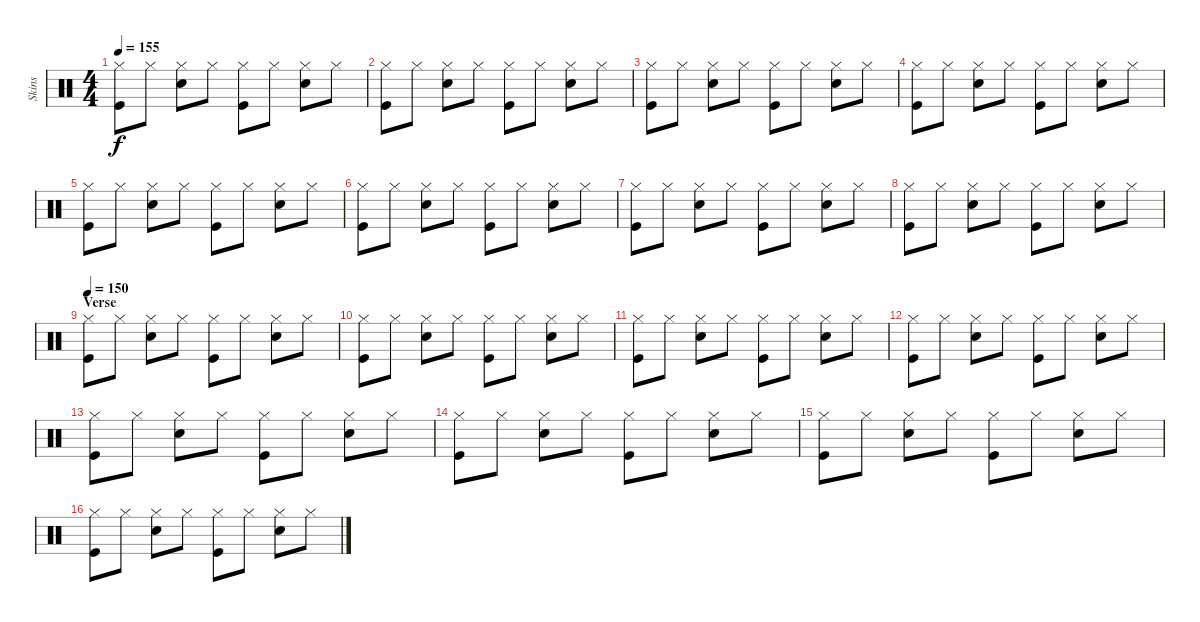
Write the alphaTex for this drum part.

\track ("Skins" "Skins") {instrument percussion}
\staff {score}
\articulation defaults
\ts (4 4)
\tempo 155
\clef neutral
\ks c
("Hi-Hat (closed)" "Kick (hit)").8{dy f} "Hi-Hat (closed)".8 ("Hi-Hat (closed)" "Snare (hit) 2").8 "Hi-Hat (closed)".8 ("Hi-Hat (closed)" "Kick (hit)").8 "Hi-Hat (closed)".8 ("Hi-Hat (closed)" "Snare (hit) 2").8 "Hi-Hat (closed)".8 |
("Hi-Hat (closed)" "Kick (hit)").8 "Hi-Hat (closed)".8 ("Hi-Hat (closed)" "Snare (hit) 2").8 "Hi-Hat (closed)".8 ("Hi-Hat (closed)" "Kick (hit)").8 "Hi-Hat (closed)".8 ("Hi-Hat (closed)" "Snare (hit) 2").8 "Hi-Hat (closed)".8 |
("Hi-Hat (closed)" "Kick (hit)").8 "Hi-Hat (closed)".8 ("Hi-Hat (closed)" "Snare (hit) 2").8 "Hi-Hat (closed)".8 ("Hi-Hat (closed)" "Kick (hit)").8 "Hi-Hat (closed)".8 ("Hi-Hat (closed)" "Snare (hit) 2").8 "Hi-Hat (closed)".8 |
("Hi-Hat (closed)" "Kick (hit)").8 "Hi-Hat (closed)".8 ("Hi-Hat (closed)" "Snare (hit) 2").8 "Hi-Hat (closed)".8 ("Hi-Hat (closed)" "Kick (hit)").8 "Hi-Hat (closed)".8 ("Hi-Hat (closed)" "Snare (hit) 2").8 "Hi-Hat (closed)".8 |
("Hi-Hat (closed)" "Kick (hit)").8 "Hi-Hat (closed)".8 ("Hi-Hat (closed)" "Snare (hit) 2").8 "Hi-Hat (closed)".8 ("Hi-Hat (closed)" "Kick (hit)").8 "Hi-Hat (closed)".8 ("Hi-Hat (closed)" "Snare (hit) 2").8 "Hi-Hat (closed)".8 |
("Hi-Hat (closed)" "Kick (hit)").8 "Hi-Hat (closed)".8 ("Hi-Hat (closed)" "Snare (hit) 2").8 "Hi-Hat (closed)".8 ("Hi-Hat (closed)" "Kick (hit)").8 "Hi-Hat (closed)".8 ("Hi-Hat (closed)" "Snare (hit) 2").8 "Hi-Hat (closed)".8 |
("Hi-Hat (closed)" "Kick (hit)").8 "Hi-Hat (closed)".8 ("Hi-Hat (closed)" "Snare (hit) 2").8 "Hi-Hat (closed)".8 ("Hi-Hat (closed)" "Kick (hit)").8 "Hi-Hat (closed)".8 ("Hi-Hat (closed)" "Snare (hit) 2").8 "Hi-Hat (closed)".8 |
("Hi-Hat (closed)" "Kick (hit)").8 "Hi-Hat (closed)".8 ("Hi-Hat (closed)" "Snare (hit) 2").8 "Hi-Hat (closed)".8 ("Hi-Hat (closed)" "Kick (hit)").8 "Hi-Hat (closed)".8 ("Hi-Hat (closed)" "Snare (hit) 2").8 "Hi-Hat (closed)".8 |
\section ("" "Verse")
\tempo 150
("Hi-Hat (closed)" "Kick (hit)").8 "Hi-Hat (closed)".8 ("Hi-Hat (closed)" "Snare (hit) 2").8 "Hi-Hat (closed)".8 ("Hi-Hat (closed)" "Kick (hit)").8 "Hi-Hat (closed)".8 ("Hi-Hat (closed)" "Snare (hit) 2").8 "Hi-Hat (closed)".8 |
("Hi-Hat (closed)" "Kick (hit)").8 "Hi-Hat (closed)".8 ("Hi-Hat (closed)" "Snare (hit) 2").8 "Hi-Hat (closed)".8 ("Hi-Hat (closed)" "Kick (hit)").8 "Hi-Hat (closed)".8 ("Hi-Hat (closed)" "Snare (hit) 2").8 "Hi-Hat (closed)".8 |
("Hi-Hat (closed)" "Kick (hit)").8 "Hi-Hat (closed)".8 ("Hi-Hat (closed)" "Snare (hit) 2").8 "Hi-Hat (closed)".8 ("Hi-Hat (closed)" "Kick (hit)").8 "Hi-Hat (closed)".8 ("Hi-Hat (closed)" "Snare (hit) 2").8 "Hi-Hat (closed)".8 |
("Hi-Hat (closed)" "Kick (hit)").8 "Hi-Hat (closed)".8 ("Hi-Hat (closed)" "Snare (hit) 2").8 "Hi-Hat (closed)".8 ("Hi-Hat (closed)" "Kick (hit)").8 "Hi-Hat (closed)".8 ("Hi-Hat (closed)" "Snare (hit) 2").8 "Hi-Hat (closed)".8 |
("Hi-Hat (closed)" "Kick (hit)").8 "Hi-Hat (closed)".8 ("Hi-Hat (closed)" "Snare (hit) 2").8 "Hi-Hat (closed)".8 ("Hi-Hat (closed)" "Kick (hit)").8 "Hi-Hat (closed)".8 ("Hi-Hat (closed)" "Snare (hit) 2").8 "Hi-Hat (closed)".8 |
("Hi-Hat (closed)" "Kick (hit)").8 "Hi-Hat (closed)".8 ("Hi-Hat (closed)" "Snare (hit) 2").8 "Hi-Hat (closed)".8 ("Hi-Hat (closed)" "Kick (hit)").8 "Hi-Hat (closed)".8 ("Hi-Hat (closed)" "Snare (hit) 2").8 "Hi-Hat (closed)".8 |
("Hi-Hat (closed)" "Kick (hit)").8 "Hi-Hat (closed)".8 ("Hi-Hat (closed)" "Snare (hit) 2").8 "Hi-Hat (closed)".8 ("Hi-Hat (closed)" "Kick (hit)").8 "Hi-Hat (closed)".8 ("Hi-Hat (closed)" "Snare (hit) 2").8 "Hi-Hat (closed)".8 |
("Hi-Hat (closed)" "Kick (hit)").8 "Hi-Hat (closed)".8 ("Hi-Hat (closed)" "Snare (hit) 2").8 "Hi-Hat (closed)".8 ("Hi-Hat (closed)" "Kick (hit)").8 "Hi-Hat (closed)".8 ("Hi-Hat (closed)" "Snare (hit) 2").8 "Hi-Hat (closed)".8
